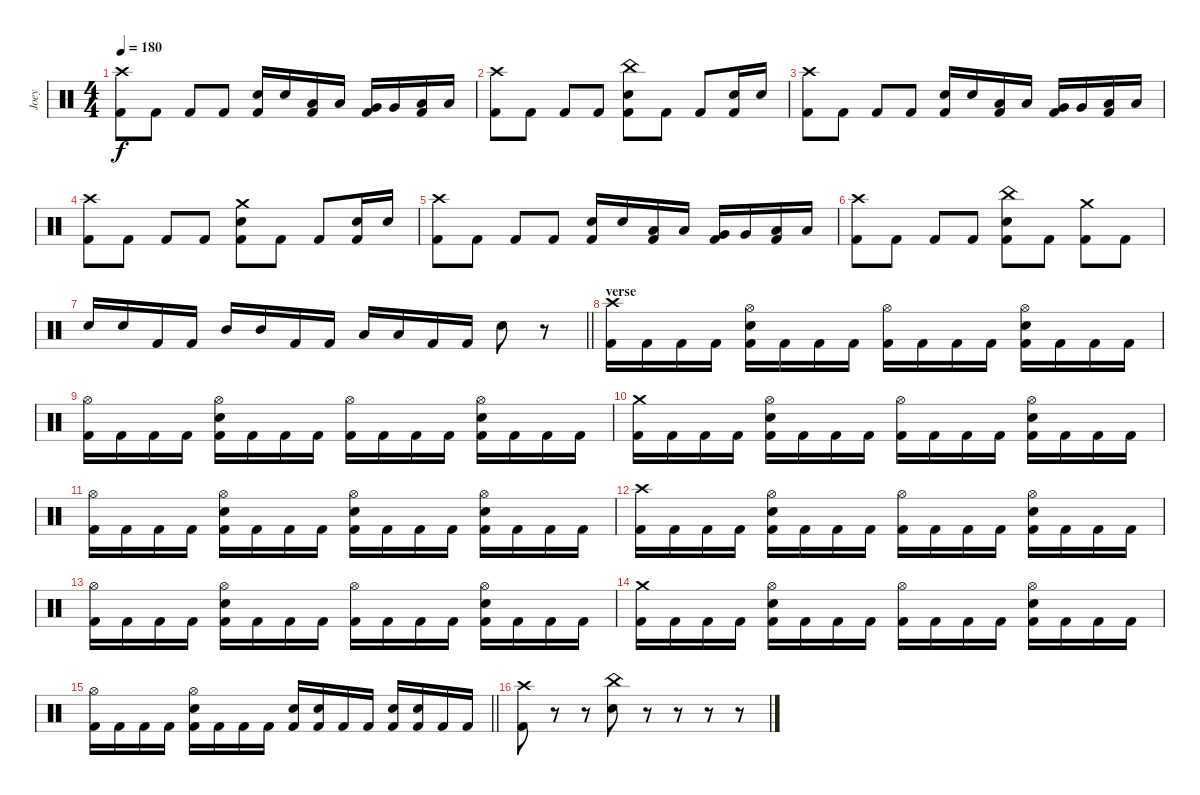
\track ("Joey" "Joey") {instrument percussion}
\staff {score}
\articulation defaults
\ts (4 4)
\tempo 180
\clef neutral
\ks c
("Crash high (hit)" "Kick (hit) 2").8{dy f} "Kick (hit) 2".8 "Kick (hit) 2".8 "Kick (hit) 2".8 ("Electric Snare (hit)" "Kick (hit) 2").16 "Electric Snare (hit)".16 ("Low Tom (hit)" "Kick (hit) 2").16 "Low Tom (hit)".16 ("Very Low Tom (hit)" "Kick (hit) 2").16 "Very Low Tom (hit)".16 ("Low Floor Tom (hit)" "Kick (hit) 2").16 "Low Floor Tom (hit)".16 |
("Crash high (hit)" "Kick (hit) 2").8 "Kick (hit) 2".8 "Kick (hit) 2".8 "Kick (hit) 2".8 ("China (hit)" "Electric Snare (hit)" "Kick (hit) 2").8 "Kick (hit) 2".8 "Kick (hit) 2".8 ("Electric Snare (hit)" "Kick (hit) 2").16 "Electric Snare (hit)".16 |
("Crash high (hit)" "Kick (hit) 2").8 "Kick (hit) 2".8 "Kick (hit) 2".8 "Kick (hit) 2".8 ("Electric Snare (hit)" "Kick (hit) 2").16 "Electric Snare (hit)".16 ("Low Tom (hit)" "Kick (hit) 2").16 "Low Tom (hit)".16 ("Very Low Tom (hit)" "Kick (hit) 2").16 "Very Low Tom (hit)".16 ("Low Floor Tom (hit)" "Kick (hit) 2").16 "Low Floor Tom (hit)".16 |
("Crash high (hit)" "Kick (hit) 2").8 "Kick (hit) 2".8 "Kick (hit) 2".8 "Kick (hit) 2".8 ("Crash medium (hit)" "Electric Snare (hit)" "Kick (hit) 2").8 "Kick (hit) 2".8 "Kick (hit) 2".8 ("Electric Snare (hit)" "Kick (hit) 2").16 "Electric Snare (hit)".16 |
("Crash high (hit)" "Kick (hit) 2").8 "Kick (hit) 2".8 "Kick (hit) 2".8 "Kick (hit) 2".8 ("Electric Snare (hit)" "Kick (hit) 2").16 "Electric Snare (hit)".16 ("Low Tom (hit)" "Kick (hit) 2").16 "Low Tom (hit)".16 ("Very Low Tom (hit)" "Kick (hit) 2").16 "Very Low Tom (hit)".16 ("Low Floor Tom (hit)" "Kick (hit) 2").16 "Low Floor Tom (hit)".16 |
("Crash high (hit)" "Kick (hit) 2").8 "Kick (hit) 2".8 "Kick (hit) 2".8 "Kick (hit) 2".8 ("China (hit)" "Electric Snare (hit)" "Kick (hit) 2").8 "Kick (hit) 2".8 ("Crash medium (hit)" "Kick (hit) 2").8 "Kick (hit) 2".8 |
\barLineRight lightlight "Electric Snare (hit)".16 "Electric Snare (hit)".16 "Kick (hit) 2".16 "Kick (hit) 2".16 "Mid Tom (hit)".16 "Mid Tom (hit)".16 "Kick (hit) 2".16 "Kick (hit) 2".16 "Low Tom (hit)".16 "Low Tom (hit)".16 "Kick (hit) 2".16 "Kick (hit) 2".16 "Electric Snare (hit)".8
r.8 |
\section ("" "verse")
("Crash high (hit)" "Kick (hit) 2").16 "Kick (hit) 2".16 "Kick (hit) 2".16 "Kick (hit) 2".16 ("Hi-Hat (open)" "Electric Snare (hit)" "Kick (hit) 2").16 "Kick (hit) 2".16 "Kick (hit) 2".16 "Kick (hit) 2".16 ("Hi-Hat (open)" "Kick (hit) 2").16 "Kick (hit) 2".16 "Kick (hit) 2".16 "Kick (hit) 2".16 ("Hi-Hat (open)" "Electric Snare (hit)" "Kick (hit) 2").16 "Kick (hit) 2".16 "Kick (hit) 2".16 "Kick (hit) 2".16 |
("Hi-Hat (open)" "Kick (hit) 2").16 "Kick (hit) 2".16 "Kick (hit) 2".16 "Kick (hit) 2".16 ("Hi-Hat (open)" "Electric Snare (hit)" "Kick (hit) 2").16 "Kick (hit) 2".16 "Kick (hit) 2".16 "Kick (hit) 2".16 ("Hi-Hat (open)" "Kick (hit) 2").16 "Kick (hit) 2".16 "Kick (hit) 2".16 "Kick (hit) 2".16 ("Hi-Hat (open)" "Electric Snare (hit)" "Kick (hit) 2").16 "Kick (hit) 2".16 "Kick (hit) 2".16 "Kick (hit) 2".16 |
("Crash medium (hit)" "Kick (hit) 2").16 "Kick (hit) 2".16 "Kick (hit) 2".16 "Kick (hit) 2".16 ("Hi-Hat (open)" "Electric Snare (hit)" "Kick (hit) 2").16 "Kick (hit) 2".16 "Kick (hit) 2".16 "Kick (hit) 2".16 ("Hi-Hat (open)" "Kick (hit) 2").16 "Kick (hit) 2".16 "Kick (hit) 2".16 "Kick (hit) 2".16 ("Hi-Hat (open)" "Electric Snare (hit)" "Kick (hit) 2").16 "Kick (hit) 2".16 "Kick (hit) 2".16 "Kick (hit) 2".16 |
("Hi-Hat (open)" "Kick (hit) 2").16 "Kick (hit) 2".16 "Kick (hit) 2".16 "Kick (hit) 2".16 ("Hi-Hat (open)" "Electric Snare (hit)" "Kick (hit) 2").16 "Kick (hit) 2".16 "Kick (hit) 2".16 "Kick (hit) 2".16 ("Hi-Hat (open)" "Electric Snare (hit)" "Kick (hit) 2").16 "Kick (hit) 2".16 "Kick (hit) 2".16 "Kick (hit) 2".16 ("Hi-Hat (open)" "Electric Snare (hit)" "Kick (hit) 2").16 "Kick (hit) 2".16 "Kick (hit) 2".16 "Kick (hit) 2".16 |
("Crash high (hit)" "Kick (hit) 2").16 "Kick (hit) 2".16 "Kick (hit) 2".16 "Kick (hit) 2".16 ("Hi-Hat (open)" "Electric Snare (hit)" "Kick (hit) 2").16 "Kick (hit) 2".16 "Kick (hit) 2".16 "Kick (hit) 2".16 ("Hi-Hat (open)" "Kick (hit) 2").16 "Kick (hit) 2".16 "Kick (hit) 2".16 "Kick (hit) 2".16 ("Hi-Hat (open)" "Electric Snare (hit)" "Kick (hit) 2").16 "Kick (hit) 2".16 "Kick (hit) 2".16 "Kick (hit) 2".16 |
("Hi-Hat (open)" "Kick (hit) 2").16 "Kick (hit) 2".16 "Kick (hit) 2".16 "Kick (hit) 2".16 ("Hi-Hat (open)" "Electric Snare (hit)" "Kick (hit) 2").16 "Kick (hit) 2".16 "Kick (hit) 2".16 "Kick (hit) 2".16 ("Hi-Hat (open)" "Kick (hit) 2").16 "Kick (hit) 2".16 "Kick (hit) 2".16 "Kick (hit) 2".16 ("Hi-Hat (open)" "Electric Snare (hit)" "Kick (hit) 2").16 "Kick (hit) 2".16 "Kick (hit) 2".16 "Kick (hit) 2".16 |
("Crash medium (hit)" "Kick (hit) 2").16 "Kick (hit) 2".16 "Kick (hit) 2".16 "Kick (hit) 2".16 ("Hi-Hat (open)" "Electric Snare (hit)" "Kick (hit) 2").16 "Kick (hit) 2".16 "Kick (hit) 2".16 "Kick (hit) 2".16 ("Hi-Hat (open)" "Kick (hit) 2").16 "Kick (hit) 2".16 "Kick (hit) 2".16 "Kick (hit) 2".16 ("Hi-Hat (open)" "Electric Snare (hit)" "Kick (hit) 2").16 "Kick (hit) 2".16 "Kick (hit) 2".16 "Kick (hit) 2".16 |
\barLineRight lightlight
("Hi-Hat (open)" "Kick (hit) 2").16 "Kick (hit) 2".16 "Kick (hit) 2".16 "Kick (hit) 2".16 ("Hi-Hat (open)" "Electric Snare (hit)" "Kick (hit) 2").16 "Kick (hit) 2".16 "Kick (hit) 2".16 "Kick (hit) 2".16 ("Electric Snare (hit)" "Kick (hit) 2").16 ("Electric Snare (hit)" "Kick (hit) 2").16 "Kick (hit) 2".16 "Kick (hit) 2".16 ("Electric Snare (hit)" "Kick (hit) 2").16 ("Electric Snare (hit)" "Kick (hit) 2").16 "Kick (hit) 2".16 "Kick (hit) 2".16 |
\section ("" "")
("Crash high (hit)" "Kick (hit) 2").8 r.8 r.8 ("China (hit)" "Electric Snare (hit)").8 r.8 r.8 r.8 r.8
